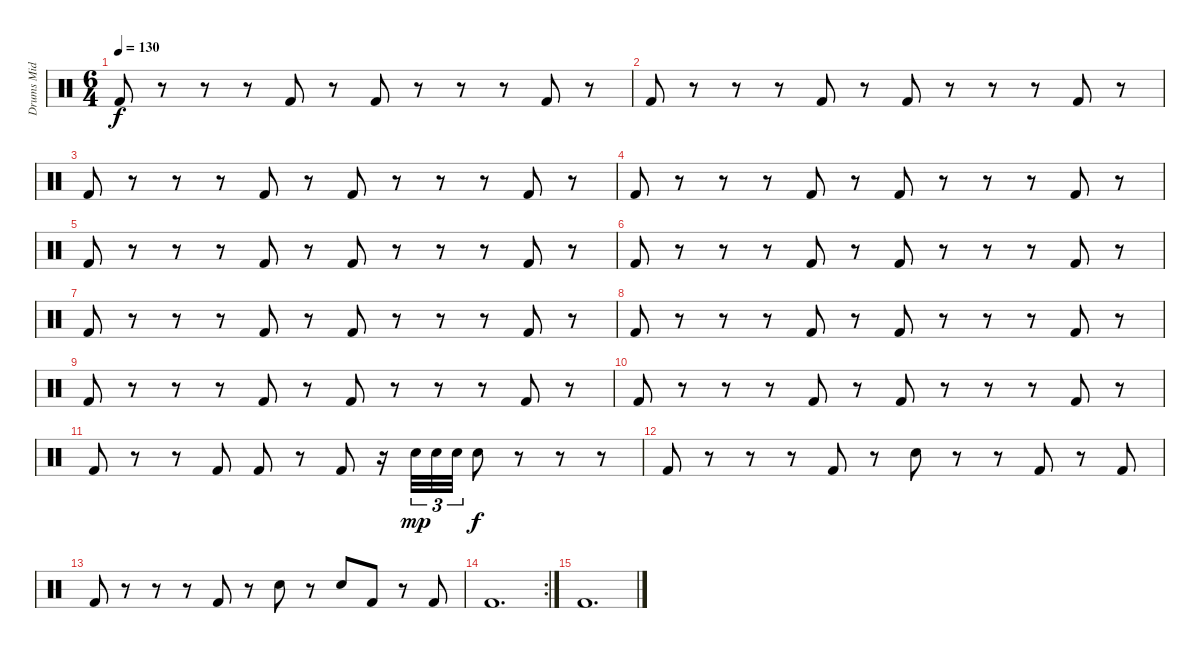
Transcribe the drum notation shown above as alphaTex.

\track ("Drums Mid" "Drums Mid") {instrument percussion}
\staff {score}
\articulation defaults
\ts (6 4)
\tempo 130
\clef neutral
\ks c "Kick (hit) 2".8{dy f}
r.8 r.8 r.8 "Kick (hit) 2".8 r.8 "Kick (hit) 2".8 r.8 r.8 r.8 "Kick (hit) 2".8 r.8 |
"Kick (hit) 2".8 r.8 r.8 r.8 "Kick (hit) 2".8 r.8 "Kick (hit) 2".8 r.8 r.8 r.8 "Kick (hit) 2".8 r.8 |
"Kick (hit) 2".8 r.8 r.8 r.8 "Kick (hit) 2".8 r.8 "Kick (hit) 2".8 r.8 r.8 r.8 "Kick (hit) 2".8 r.8 |
"Kick (hit) 2".8 r.8 r.8 r.8 "Kick (hit) 2".8 r.8 "Kick (hit) 2".8 r.8 r.8 r.8 "Kick (hit) 2".8 r.8 |
"Kick (hit) 2".8 r.8 r.8 r.8 "Kick (hit) 2".8 r.8 "Kick (hit) 2".8 r.8 r.8 r.8 "Kick (hit) 2".8 r.8 |
"Kick (hit) 2".8 r.8 r.8 r.8 "Kick (hit) 2".8 r.8 "Kick (hit) 2".8 r.8 r.8 r.8 "Kick (hit) 2".8 r.8 |
"Kick (hit) 2".8 r.8 r.8 r.8 "Kick (hit) 2".8 r.8 "Kick (hit) 2".8 r.8 r.8 r.8 "Kick (hit) 2".8 r.8 |
"Kick (hit) 2".8 r.8 r.8 r.8 "Kick (hit) 2".8 r.8 "Kick (hit) 2".8 r.8 r.8 r.8 "Kick (hit) 2".8 r.8 |
"Kick (hit) 2".8 r.8 r.8 r.8 "Kick (hit) 2".8 r.8 "Kick (hit) 2".8 r.8 r.8 r.8 "Kick (hit) 2".8 r.8 |
"Kick (hit) 2".8 r.8 r.8 r.8 "Kick (hit) 2".8 r.8 "Kick (hit) 2".8 r.8 r.8 r.8 "Kick (hit) 2".8 r.8 |
"Kick (hit) 2".8 r.8 r.8 "Kick (hit) 2".8 "Kick (hit) 2".8 r.8 "Kick (hit) 2".8 r.16 "Snare (hit) 2".32{tu (3 2) dy mp} "Snare (hit) 2".32{tu (3 2)} "Snare (hit) 2".32{tu (3 2)} "Snare (hit) 2".8{dy f} r.8 r.8 r.8 |
"Kick (hit) 2".8 r.8 r.8 r.8 "Kick (hit) 2".8 r.8 "Snare (hit) 2".8 r.8 r.8 "Kick (hit) 2".8 r.8 "Kick (hit) 2".8 |
"Kick (hit) 2".8 r.8 r.8 r.8 "Kick (hit) 2".8 r.8 "Snare (hit) 2".8 r.8 "Snare (hit) 2".8 "Kick (hit) 2".8 r.8 "Kick (hit) 2".8 |
\rc 2 "Kick (hit) 2".1{d}
|
"Kick (hit) 2".1{d}
